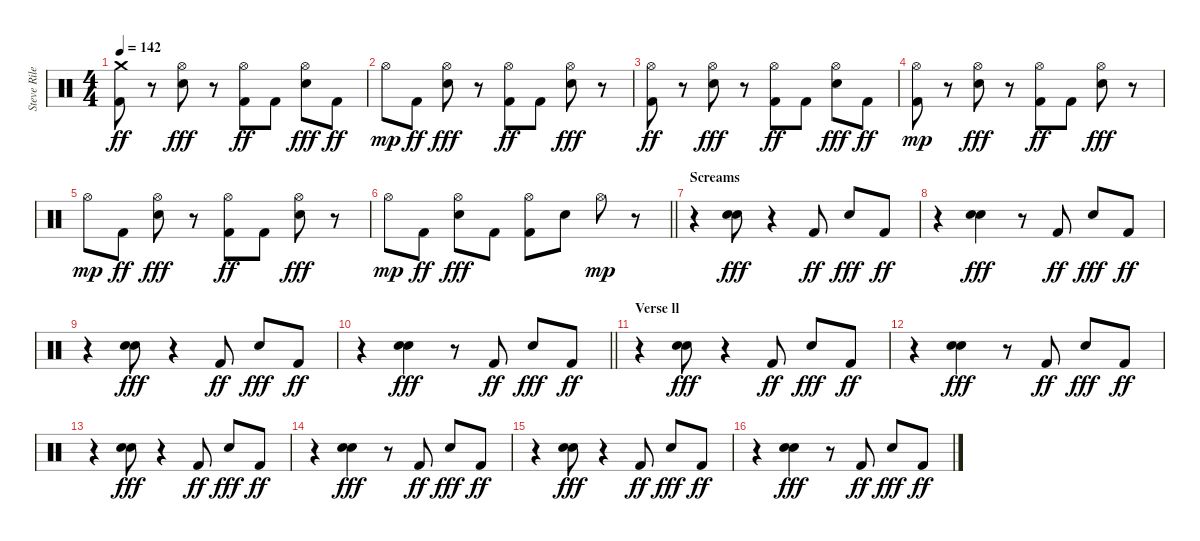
\track ("Steve Riley" "Steve Rile") {instrument percussion}
\staff {score}
\articulation defaults
\ts (4 4)
\tempo 142
\clef neutral
\ks c
("Crash medium (hit)" "Kick (hit) 2").8{dy ff} r.8 ("Hi-Hat (open)" "Electric Snare (hit)").8{dy fff} r.8 ("Hi-Hat (open)" "Kick (hit) 2").8{dy ff} "Kick (hit) 2".8 ("Hi-Hat (open)" "Electric Snare (hit)").8{dy fff} "Kick (hit) 2".8{dy ff} |
"Hi-Hat (open)".8{dy mp} "Kick (hit) 2".8{dy ff} ("Hi-Hat (open)" "Electric Snare (hit)").8{dy fff} r.8 ("Hi-Hat (open)" "Kick (hit) 2").8{dy ff} "Kick (hit) 2".8 ("Hi-Hat (open)" "Electric Snare (hit)").8{dy fff} r.8 |
("Hi-Hat (open)" "Kick (hit) 2").8{dy ff} r.8 ("Hi-Hat (open)" "Electric Snare (hit)").8{dy fff} r.8 ("Hi-Hat (open)" "Kick (hit) 2").8{dy ff} "Kick (hit) 2".8 ("Hi-Hat (open)" "Electric Snare (hit)").8{dy fff} "Kick (hit) 2".8{dy ff} |
("Hi-Hat (open)" "Kick (hit) 2").8{dy mp} r.8 ("Hi-Hat (open)" "Electric Snare (hit)").8{dy fff} r.8 ("Hi-Hat (open)" "Kick (hit) 2").8{dy ff} "Kick (hit) 2".8 ("Hi-Hat (open)" "Electric Snare (hit)").8{dy fff} r.8 |
"Hi-Hat (open)".8{dy mp} "Kick (hit) 2".8{dy ff} ("Hi-Hat (open)" "Electric Snare (hit)").8{dy fff} r.8 ("Hi-Hat (open)" "Kick (hit) 2").8{dy ff} "Kick (hit) 2".8 ("Hi-Hat (open)" "Electric Snare (hit)").8{dy fff} r.8 |
\barLineRight lightlight "Hi-Hat (open)".8{dy mp} "Kick (hit) 2".8{dy ff}
("Hi-Hat (open)" "Electric Snare (hit)").8{dy fff} "Kick (hit) 2".8 ("Hi-Hat (open)" "Kick (hit) 2").8 "Electric Snare (hit)".8 "Hi-Hat (open)".8{dy mp} r.8 |
\section ("" "Screams")
r.4 ("Electric Snare (hit)" "Electric Snare (hit)").8{bd 60 dy fff} r.4 "Kick (hit) 2".8{dy ff} "Electric Snare (hit)".8{dy fff} "Kick (hit) 2".8{dy ff} |
r.4 ("Electric Snare (hit)" "Electric Snare (hit)").4{bd 60 dy fff} r.8 "Kick (hit) 2".8{dy ff} "Electric Snare (hit)".8{dy fff} "Kick (hit) 2".8{dy ff} |
r.4 ("Electric Snare (hit)" "Electric Snare (hit)").8{bd 60 dy fff} r.4 "Kick (hit) 2".8{dy ff} "Electric Snare (hit)".8{dy fff} "Kick (hit) 2".8{dy ff} |
\barLineRight lightlight
r.4 ("Electric Snare (hit)" "Electric Snare (hit)").4{bd 60 dy fff} r.8 "Kick (hit) 2".8{dy ff} "Electric Snare (hit)".8{dy fff} "Kick (hit) 2".8{dy ff} |
\section ("" "Verse ll")
r.4 ("Electric Snare (hit)" "Electric Snare (hit)").8{bd 60 dy fff} r.4 "Kick (hit) 2".8{dy ff} "Electric Snare (hit)".8{dy fff} "Kick (hit) 2".8{dy ff} |
r.4 ("Electric Snare (hit)" "Electric Snare (hit)").4{bd 60 dy fff} r.8 "Kick (hit) 2".8{dy ff} "Electric Snare (hit)".8{dy fff} "Kick (hit) 2".8{dy ff} |
r.4 ("Electric Snare (hit)" "Electric Snare (hit)").8{bd 60 dy fff} r.4 "Kick (hit) 2".8{dy ff} "Electric Snare (hit)".8{dy fff} "Kick (hit) 2".8{dy ff} |
r.4 ("Electric Snare (hit)" "Electric Snare (hit)").4{bd 60 dy fff} r.8 "Kick (hit) 2".8{dy ff} "Electric Snare (hit)".8{dy fff} "Kick (hit) 2".8{dy ff} |
r.4 ("Electric Snare (hit)" "Electric Snare (hit)").8{bd 60 dy fff} r.4 "Kick (hit) 2".8{dy ff} "Electric Snare (hit)".8{dy fff} "Kick (hit) 2".8{dy ff} |
r.4 ("Electric Snare (hit)" "Electric Snare (hit)").4{bd 60 dy fff} r.8 "Kick (hit) 2".8{dy ff} "Electric Snare (hit)".8{dy fff} "Kick (hit) 2".8{dy ff}
